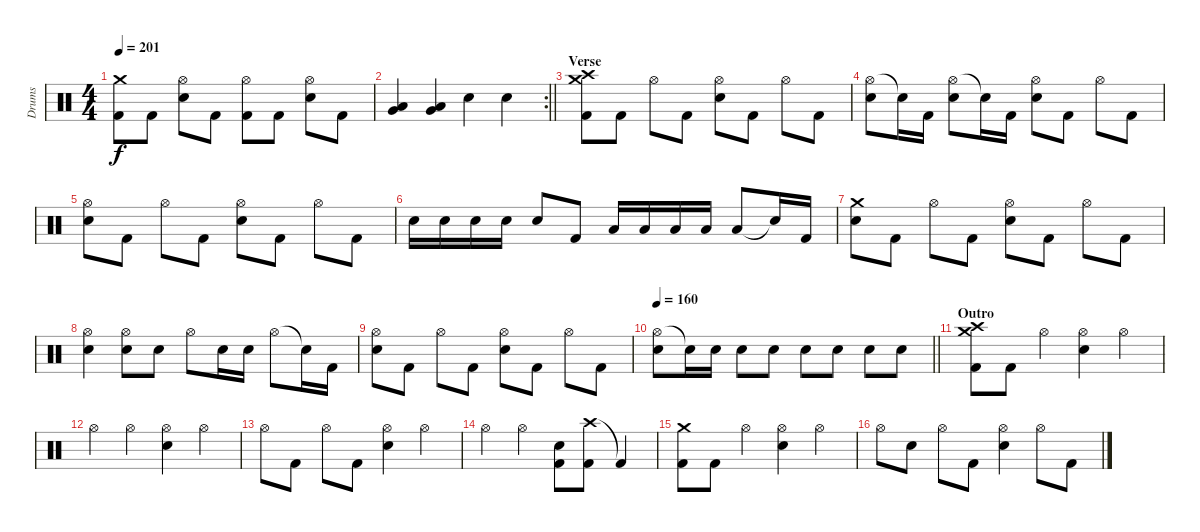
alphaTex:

\track ("Drums" "Drums") {instrument percussion}
\staff {score}
\articulation defaults
\ts (4 4)
\tempo 201
\clef neutral
\ks c
("Crash medium (hit)" "Kick (hit) 2").8{dy f} "Kick (hit) 2".8 ("Hi-Hat (open)" "Electric Snare (hit)").8 "Kick (hit) 2".8 ("Hi-Hat (open)" "Kick (hit) 2").8 "Kick (hit) 2".8 ("Hi-Hat (open)" "Electric Snare (hit)").8 "Kick (hit) 2".8 |
\rc 2
\barLineRight lightlight
("Very Low Tom (hit)" "Low Floor Tom (hit)").4 ("Very Low Tom (hit)" "Low Floor Tom (hit)").4 "Electric Snare (hit)".4 "Electric Snare (hit)".4 |
\section ("" "Verse")
("Crash medium (hit)" "Crash high (hit)" "Kick (hit) 2").8 "Kick (hit) 2".8 "Hi-Hat (open)".8 "Kick (hit) 2".8 ("Hi-Hat (open)" "Electric Snare (hit)").8 "Kick (hit) 2".8 "Hi-Hat (open)".8 "Kick (hit) 2".8 |
("Hi-Hat (open)" "Electric Snare (hit)").8 "Snare (hit)"{t}.16 "Kick (hit) 2".16 ("Hi-Hat (open)" "Electric Snare (hit)").8 "Snare (hit)"{t}.16 "Kick (hit) 2".16 ("Hi-Hat (open)" "Electric Snare (hit)").8 "Kick (hit) 2".8 "Hi-Hat (open)".8 "Kick (hit) 2".8 |
("Hi-Hat (open)" "Electric Snare (hit)").8 "Kick (hit) 2".8 "Hi-Hat (open)".8 "Kick (hit) 2".8 ("Hi-Hat (open)" "Electric Snare (hit)").8 "Kick (hit) 2".8 "Hi-Hat (open)".8 "Kick (hit) 2".8 |
"Electric Snare (hit)".16 "Electric Snare (hit)".16 "Electric Snare (hit)".16 "Electric Snare (hit)".16 "Electric Snare (hit)".8 "Kick (hit) 2".8 "Low Tom (hit)".16 "Low Tom (hit)".16 "Low Tom (hit)".16 "Low Tom (hit)".16 "Low Tom (hit)".8 "Snare (hit)"{t}.16 "Kick (hit) 2".16 |
("Crash medium (hit)" "Electric Snare (hit)").8 "Kick (hit) 2".8 "Hi-Hat (open)".8 "Kick (hit) 2".8 ("Hi-Hat (open)" "Electric Snare (hit)").8 "Kick (hit) 2".8 "Hi-Hat (open)".8 "Kick (hit) 2".8 |
("Hi-Hat (open)" "Electric Snare (hit)").4 ("Hi-Hat (open)" "Electric Snare (hit)").8 "Electric Snare (hit)".8 "Hi-Hat (open)".8 "Electric Snare (hit)".16 "Electric Snare (hit)".16 "Hi-Hat (open)".8 "Snare (hit)"{t}.16 "Kick (hit) 2".16 |
("Hi-Hat (open)" "Electric Snare (hit)").8 "Kick (hit) 2".8 "Hi-Hat (open)".8 "Kick (hit) 2".8 ("Hi-Hat (open)" "Electric Snare (hit)").8 "Kick (hit) 2".8 "Hi-Hat (open)".8 "Kick (hit) 2".8 |
\tempo 160
\barLineRight lightlight
("Hi-Hat (open)" "Electric Snare (hit)").8 "Snare (hit)"{t}.16 "Electric Snare (hit)".16 "Electric Snare (hit)".8 "Electric Snare (hit)".8 "Electric Snare (hit)".8 "Electric Snare (hit)".8 "Electric Snare (hit)".8 "Electric Snare (hit)".8 |
\section ("" "Outro")
("Crash medium (hit)" "Crash high (hit)" "Kick (hit) 2").8 "Kick (hit) 2".8 "Hi-Hat (open)".4 ("Hi-Hat (open)" "Electric Snare (hit)").4 "Hi-Hat (open)".4 |
"Hi-Hat (open)".4 "Hi-Hat (open)".4 ("Hi-Hat (open)" "Electric Snare (hit)").4 "Hi-Hat (open)".4 |
"Hi-Hat (open)".8 "Kick (hit) 2".8 "Hi-Hat (open)".8 "Kick (hit) 2".8 ("Hi-Hat (open)" "Electric Snare (hit)").4 "Hi-Hat (open)".4 |
"Hi-Hat (open)".4 "Hi-Hat (open)".4 ("Electric Snare (hit)" "Kick (hit) 2").8 ("Crash high (hit)" "Kick (hit) 2").8 "Kick (hit) 2"{t}.4 |
("Crash medium (hit)" "Kick (hit) 2").8 "Kick (hit) 2".8 "Hi-Hat (open)".4 ("Hi-Hat (open)" "Electric Snare (hit)").4 "Hi-Hat (open)".4 |
"Hi-Hat (open)".8 "Electric Snare (hit)".8 "Hi-Hat (open)".8 "Kick (hit) 2".8 ("Hi-Hat (open)" "Electric Snare (hit)").4 "Hi-Hat (open)".8 "Kick (hit) 2".8
